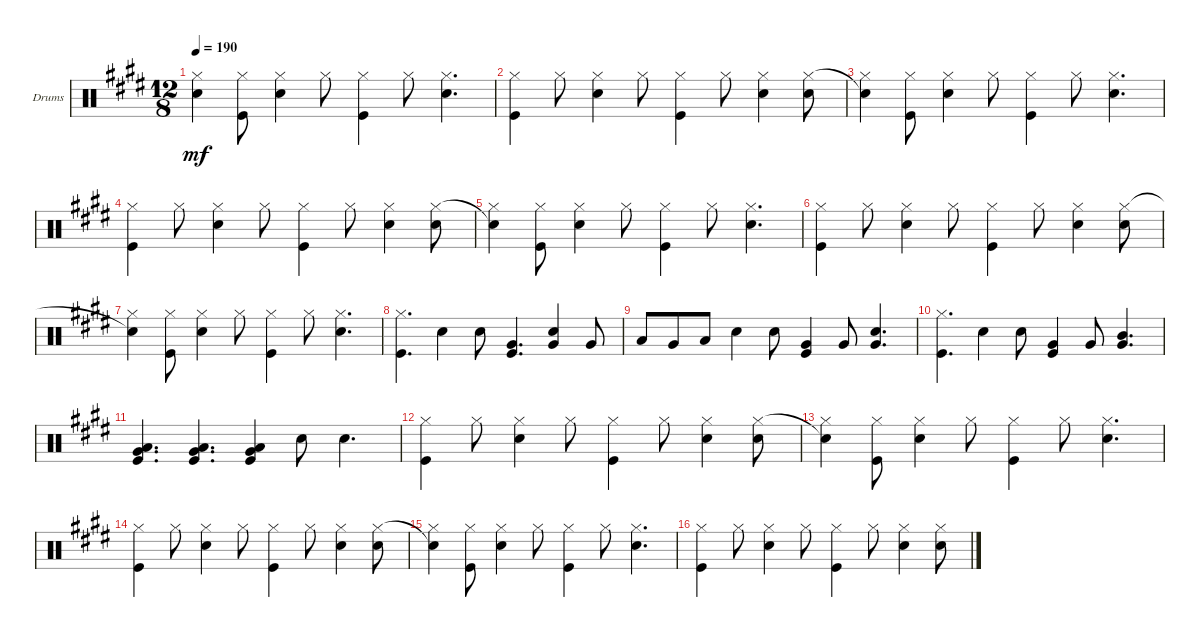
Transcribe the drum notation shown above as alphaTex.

\defaultSystemsLayout 4
\bracketExtendMode groupsimilarinstruments
\firstSystemTrackNameOrientation horizontal
\otherSystemsTrackNameOrientation horizontal
\track ("Drumkit" "Drums") {instrument percussion}
\staff {score}
\articulation defaults
\ts (12 8)
\tempo 190
\clef neutral
\ks c#minor
("Snare (hit) 2"{t} "Hi-Hat (closed)").4{dy mf} ("Hi-Hat (closed)" "Kick (hit)").8 ("Snare (hit) 2" "Hi-Hat (closed)").4 "Hi-Hat (closed)".8 ("Hi-Hat (closed)" "Kick (hit)").4 "Hi-Hat (closed)".8 ("Hi-Hat (closed)" "Snare (hit) 2").4{d} |
("Hi-Hat (closed)" "Kick (hit)").4 "Hi-Hat (closed)".8 ("Hi-Hat (closed)" "Snare (hit) 2").4 "Hi-Hat (closed)".8 ("Hi-Hat (closed)" "Kick (hit)").4 "Hi-Hat (closed)".8 ("Hi-Hat (closed)" "Snare (hit) 2").4 ("Hi-Hat (closed)" "Snare (hit) 2").8 |
("Snare (hit) 2"{t} "Hi-Hat (closed)").4 ("Hi-Hat (closed)" "Kick (hit)").8 ("Snare (hit) 2" "Hi-Hat (closed)").4 "Hi-Hat (closed)".8 ("Hi-Hat (closed)" "Kick (hit)").4 "Hi-Hat (closed)".8 ("Hi-Hat (closed)" "Snare (hit) 2").4{d} |
("Hi-Hat (closed)" "Kick (hit)").4 "Hi-Hat (closed)".8 ("Hi-Hat (closed)" "Snare (hit) 2").4 "Hi-Hat (closed)".8 ("Hi-Hat (closed)" "Kick (hit)").4 "Hi-Hat (closed)".8 ("Hi-Hat (closed)" "Snare (hit) 2").4 ("Hi-Hat (closed)" "Snare (hit) 2").8 |
("Snare (hit) 2"{t} "Hi-Hat (closed)").4 ("Hi-Hat (closed)" "Kick (hit)").8 ("Snare (hit) 2" "Hi-Hat (closed)").4 "Hi-Hat (closed)".8 ("Hi-Hat (closed)" "Kick (hit)").4 "Hi-Hat (closed)".8 ("Hi-Hat (closed)" "Snare (hit) 2").4{d} |
("Hi-Hat (closed)" "Kick (hit)").4 "Hi-Hat (closed)".8 ("Hi-Hat (closed)" "Snare (hit) 2").4 "Hi-Hat (closed)".8 ("Hi-Hat (closed)" "Kick (hit)").4 "Hi-Hat (closed)".8 ("Hi-Hat (closed)" "Snare (hit) 2").4 ("Hi-Hat (closed)" "Snare (hit) 2").8 |
("Snare (hit) 2"{t} "Hi-Hat (closed)").4 ("Hi-Hat (closed)" "Kick (hit)").8 ("Snare (hit) 2" "Hi-Hat (closed)").4 "Hi-Hat (closed)".8 ("Hi-Hat (closed)" "Kick (hit)").4 "Hi-Hat (closed)".8 ("Hi-Hat (closed)" "Snare (hit) 2").4{d} |
("Hi-Hat (closed)" "Kick (hit)").4{d} "Snare (hit) 2".4 "Snare (hit) 2".8 ("Very Low Tom (hit)" "Kick (hit)").4{d} ("Snare (hit) 2" "Very Low Tom (hit)").4 "Very Low Tom (hit)".8 |
"Low Tom (hit)".8 "Very Low Tom (hit)".8 "Low Tom (hit)".8 "Snare (hit) 2".4 "Snare (hit) 2".8 ("Very Low Tom (hit)" "Kick (hit)").4 "Very Low Tom (hit)".8 ("Very Low Tom (hit)" "Snare (hit) 2").4{d} |
("Hi-Hat (closed)" "Kick (hit)").4{d} "Snare (hit) 2".4 "Snare (hit) 2".8 ("Very Low Tom (hit)" "Kick (hit)").4 "Very Low Tom (hit)".8 ("Very Low Tom (hit)" "Mid Tom (hit)").4{d} |
("Low Tom (hit)" "Very Low Tom (hit)" "Kick (hit)").4{d} ("Kick (hit)" "Very Low Tom (hit)" "Low Tom (hit)").4{d} ("Low Tom (hit)" "Very Low Tom (hit)" "Kick (hit)").4 "Snare (hit) 2".8 "Snare (hit) 2".4{d} |
("Hi-Hat (closed)" "Kick (hit)").4 "Hi-Hat (closed)".8 ("Hi-Hat (closed)" "Snare (hit) 2").4 "Hi-Hat (closed)".8 ("Hi-Hat (closed)" "Kick (hit)").4 "Hi-Hat (closed)".8 ("Hi-Hat (closed)" "Snare (hit) 2").4 ("Hi-Hat (closed)" "Snare (hit) 2").8 |
("Snare (hit) 2"{t} "Hi-Hat (closed)").4 ("Hi-Hat (closed)" "Kick (hit)").8 ("Snare (hit) 2" "Hi-Hat (closed)").4 "Hi-Hat (closed)".8 ("Hi-Hat (closed)" "Kick (hit)").4 "Hi-Hat (closed)".8 ("Hi-Hat (closed)" "Snare (hit) 2").4{d} |
("Hi-Hat (closed)" "Kick (hit)").4 "Hi-Hat (closed)".8 ("Hi-Hat (closed)" "Snare (hit) 2").4 "Hi-Hat (closed)".8 ("Hi-Hat (closed)" "Kick (hit)").4 "Hi-Hat (closed)".8 ("Hi-Hat (closed)" "Snare (hit) 2").4 ("Hi-Hat (closed)" "Snare (hit) 2").8 |
("Snare (hit) 2"{t} "Hi-Hat (closed)").4 ("Hi-Hat (closed)" "Kick (hit)").8 ("Snare (hit) 2" "Hi-Hat (closed)").4 "Hi-Hat (closed)".8 ("Hi-Hat (closed)" "Kick (hit)").4 "Hi-Hat (closed)".8 ("Hi-Hat (closed)" "Snare (hit) 2").4{d} |
("Hi-Hat (closed)" "Kick (hit)").4 "Hi-Hat (closed)".8 ("Hi-Hat (closed)" "Snare (hit) 2").4 "Hi-Hat (closed)".8 ("Hi-Hat (closed)" "Kick (hit)").4 "Hi-Hat (closed)".8 ("Hi-Hat (closed)" "Snare (hit) 2").4 ("Hi-Hat (closed)" "Snare (hit) 2").8
